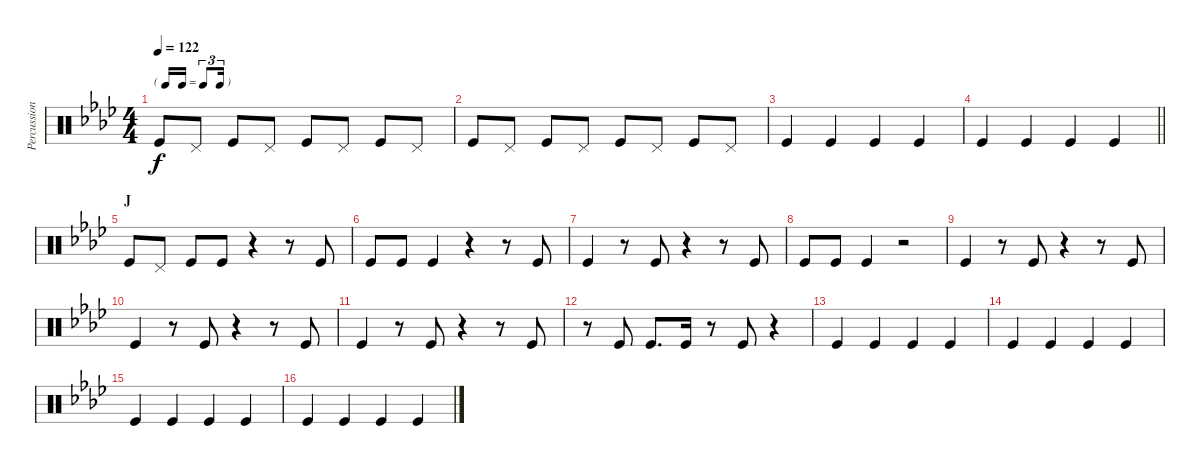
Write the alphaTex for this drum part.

\track ("Percussion Foot" "Percussion") {instrument percussion}
\staff {score}
\articulation defaults
\ts (4 4)
\tf triplet16th
\tempo 122
\clef neutral
\ks ab "Kick (hit)".8{dy f} "Pedal Hi-Hat (hit)".8 "Kick (hit)".8 "Pedal Hi-Hat (hit)".8 "Kick (hit)".8 "Pedal Hi-Hat (hit)".8 "Kick (hit)".8 "Pedal Hi-Hat (hit)".8
|
"Kick (hit)".8 "Pedal Hi-Hat (hit)".8 "Kick (hit)".8 "Pedal Hi-Hat (hit)".8 "Kick (hit)".8 "Pedal Hi-Hat (hit)".8 "Kick (hit)".8 "Pedal Hi-Hat (hit)".8 |
"Kick (hit)".4 "Kick (hit)".4 "Kick (hit)".4 "Kick (hit)".4 |
\barLineRight lightlight "Kick (hit)".4 "Kick (hit)".4 "Kick (hit)".4 "Kick (hit)".4
|
\section ("" "J")
"Kick (hit)".8 "Pedal Hi-Hat (hit)".8 "Kick (hit)".8 "Kick (hit)".8 r.4 r.8 "Kick (hit)".8 |
"Kick (hit)".8 "Kick (hit)".8 "Kick (hit)".4 r.4 r.8 "Kick (hit)".8 |
"Kick (hit)".4 r.8 "Kick (hit)".8 r.4 r.8 "Kick (hit)".8 |
"Kick (hit)".8 "Kick (hit)".8 "Kick (hit)".4 r.2 |
"Kick (hit)".4 r.8 "Kick (hit)".8 r.4 r.8 "Kick (hit)".8 |
"Kick (hit)".4 r.8 "Kick (hit)".8 r.4 r.8 "Kick (hit)".8 |
"Kick (hit)".4 r.8 "Kick (hit)".8 r.4 r.8 "Kick (hit)".8 |
r.8 "Kick (hit)".8 "Kick (hit)".8{d} "Kick (hit)".16 r.8 "Kick (hit)".8 r.4 |
"Kick (hit)".4 "Kick (hit)".4 "Kick (hit)".4 "Kick (hit)".4 |
"Kick (hit)".4 "Kick (hit)".4 "Kick (hit)".4 "Kick (hit)".4 |
"Kick (hit)".4 "Kick (hit)".4 "Kick (hit)".4 "Kick (hit)".4 |
"Kick (hit)".4 "Kick (hit)".4 "Kick (hit)".4 "Kick (hit)".4
